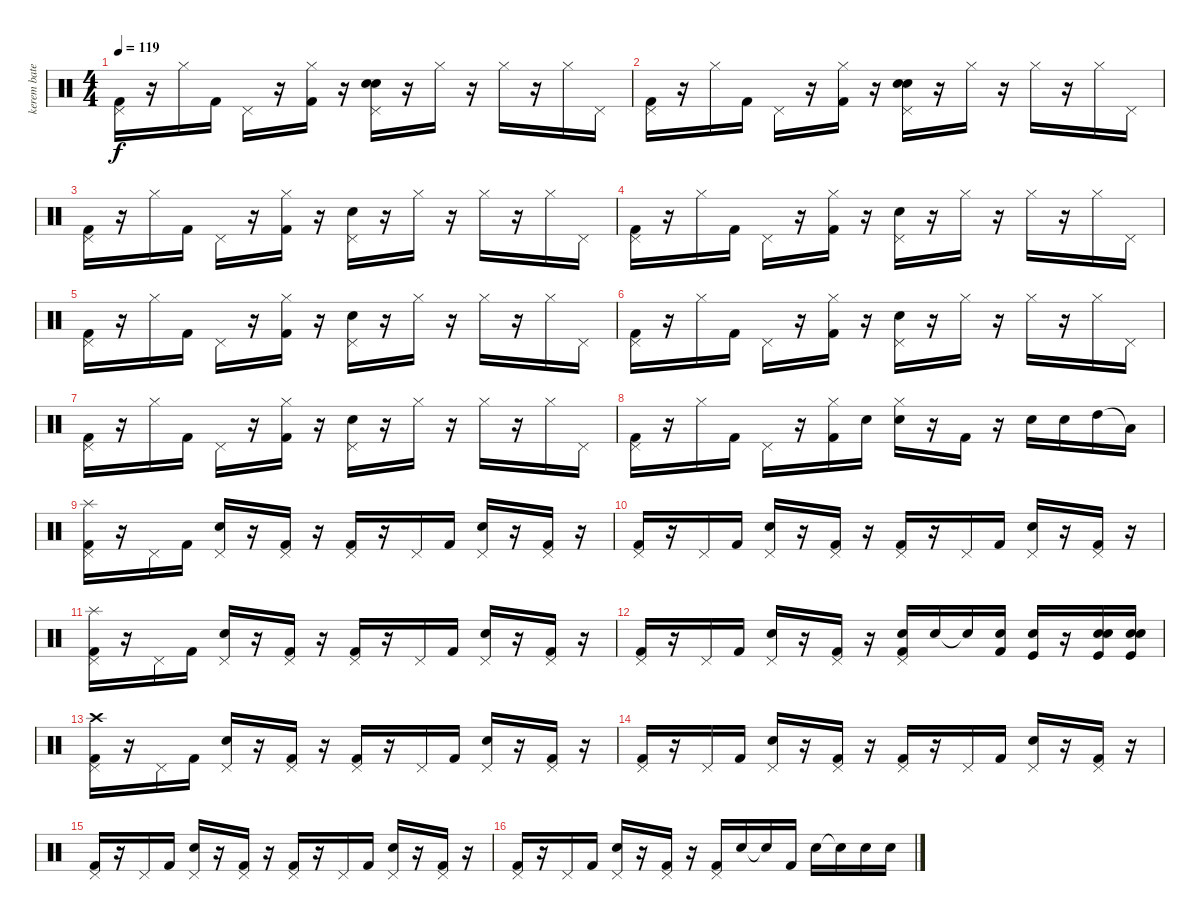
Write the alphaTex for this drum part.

\track ("kerem bateri" "kerem bate") {instrument percussion}
\staff {score}
\articulation defaults
\ts (4 4)
\tempo 119
\clef neutral
\ks c
("Pedal Hi-Hat (hit)" "Kick (hit) 2").16{dy f} r.16 "Hi-Hat (closed)".16 "Kick (hit) 2".16 "Pedal Hi-Hat (hit)".16 r.16 ("Hi-Hat (closed)" "Kick (hit) 2").16 r.16 ("Pedal Hi-Hat (hit)" "Electric Snare (hit)" "Snare (hit) 2").16 r.16 "Hi-Hat (closed)".16 r.16 "Hi-Hat (closed)".16 r.16 "Hi-Hat (closed)".16 "Pedal Hi-Hat (hit)".16 |
("Pedal Hi-Hat (hit)" "Kick (hit) 2").16 r.16 "Hi-Hat (closed)".16 "Kick (hit) 2".16 "Pedal Hi-Hat (hit)".16 r.16 ("Hi-Hat (closed)" "Kick (hit) 2").16 r.16 ("Pedal Hi-Hat (hit)" "Electric Snare (hit)" "Snare (hit) 2").16 r.16 "Hi-Hat (closed)".16 r.16 "Hi-Hat (closed)".16 r.16 "Hi-Hat (closed)".16 "Pedal Hi-Hat (hit)".16 |
("Pedal Hi-Hat (hit)" "Kick (hit) 2").16 r.16 "Hi-Hat (closed)".16 "Kick (hit) 2".16 "Pedal Hi-Hat (hit)".16 r.16 ("Hi-Hat (closed)" "Kick (hit) 2").16 r.16 ("Pedal Hi-Hat (hit)" "Electric Snare (hit)").16 r.16 "Hi-Hat (closed)".16 r.16 "Hi-Hat (closed)".16 r.16 "Hi-Hat (closed)".16 "Pedal Hi-Hat (hit)".16 |
("Pedal Hi-Hat (hit)" "Kick (hit) 2").16 r.16 "Hi-Hat (closed)".16 "Kick (hit) 2".16 "Pedal Hi-Hat (hit)".16 r.16 ("Hi-Hat (closed)" "Kick (hit) 2").16 r.16 ("Pedal Hi-Hat (hit)" "Electric Snare (hit)").16 r.16 "Hi-Hat (closed)".16 r.16 "Hi-Hat (closed)".16 r.16 "Hi-Hat (closed)".16 "Pedal Hi-Hat (hit)".16 |
("Pedal Hi-Hat (hit)" "Kick (hit) 2").16 r.16 "Hi-Hat (closed)".16 "Kick (hit) 2".16 "Pedal Hi-Hat (hit)".16 r.16 ("Hi-Hat (closed)" "Kick (hit) 2").16 r.16 ("Pedal Hi-Hat (hit)" "Electric Snare (hit)").16 r.16 "Hi-Hat (closed)".16 r.16 "Hi-Hat (closed)".16 r.16 "Hi-Hat (closed)".16 "Pedal Hi-Hat (hit)".16 |
("Pedal Hi-Hat (hit)" "Kick (hit) 2").16 r.16 "Hi-Hat (closed)".16 "Kick (hit) 2".16 "Pedal Hi-Hat (hit)".16 r.16 ("Hi-Hat (closed)" "Kick (hit) 2").16 r.16 ("Pedal Hi-Hat (hit)" "Electric Snare (hit)").16 r.16 "Hi-Hat (closed)".16 r.16 "Hi-Hat (closed)".16 r.16 "Hi-Hat (closed)".16 "Pedal Hi-Hat (hit)".16 |
("Pedal Hi-Hat (hit)" "Kick (hit) 2").16 r.16 "Hi-Hat (closed)".16 "Kick (hit) 2".16 "Pedal Hi-Hat (hit)".16 r.16 ("Hi-Hat (closed)" "Kick (hit) 2").16 r.16 ("Pedal Hi-Hat (hit)" "Electric Snare (hit)").16 r.16 "Hi-Hat (closed)".16 r.16 "Hi-Hat (closed)".16 r.16 "Hi-Hat (closed)".16 "Pedal Hi-Hat (hit)".16 |
("Pedal Hi-Hat (hit)" "Kick (hit) 2").16 r.16 "Hi-Hat (closed)".16 "Kick (hit) 2".16 "Pedal Hi-Hat (hit)".16 r.16 ("Hi-Hat (closed)" "Kick (hit) 2").16 "Electric Snare (hit)".16 ("Hi-Hat (closed)" "Electric Snare (hit)").16 r.16 "Kick (hit) 2".16 r.16 "Electric Snare (hit)".16 "Electric Snare (hit)".16 "High Tom (hit)".16 "Low Tom (hit)"{t}.16 |
("Splash (hit)" "Kick (hit) 2" "Pedal Hi-Hat (hit)").16 r.16 "Pedal Hi-Hat (hit)".16 "Kick (hit) 2".16 ("Electric Snare (hit)" "Pedal Hi-Hat (hit)").16 r.16 ("Kick (hit) 2" "Pedal Hi-Hat (hit)").16 r.16 ("Kick (hit) 2" "Pedal Hi-Hat (hit)").16 r.16 "Pedal Hi-Hat (hit)".16 "Kick (hit) 2".16 ("Electric Snare (hit)" "Pedal Hi-Hat (hit)").16 r.16 ("Kick (hit) 2" "Pedal Hi-Hat (hit)").16 r.16 |
("Kick (hit) 2" "Pedal Hi-Hat (hit)").16 r.16 "Pedal Hi-Hat (hit)".16 "Kick (hit) 2".16 ("Electric Snare (hit)" "Pedal Hi-Hat (hit)").16 r.16 ("Kick (hit) 2" "Pedal Hi-Hat (hit)").16 r.16 ("Kick (hit) 2" "Pedal Hi-Hat (hit)").16 r.16 "Pedal Hi-Hat (hit)".16 "Kick (hit) 2".16 ("Electric Snare (hit)" "Pedal Hi-Hat (hit)").16 r.16 ("Kick (hit) 2" "Pedal Hi-Hat (hit)").16 r.16 |
("Splash (hit)" "Kick (hit) 2" "Pedal Hi-Hat (hit)").16 r.16 "Pedal Hi-Hat (hit)".16 "Kick (hit) 2".16 ("Electric Snare (hit)" "Pedal Hi-Hat (hit)").16 r.16 ("Kick (hit) 2" "Pedal Hi-Hat (hit)").16 r.16 ("Kick (hit) 2" "Pedal Hi-Hat (hit)").16 r.16 "Pedal Hi-Hat (hit)".16 "Kick (hit) 2".16 ("Electric Snare (hit)" "Pedal Hi-Hat (hit)").16 r.16 ("Kick (hit) 2" "Pedal Hi-Hat (hit)").16 r.16 |
("Kick (hit) 2" "Pedal Hi-Hat (hit)").16 r.16 "Pedal Hi-Hat (hit)".16 "Kick (hit) 2".16 ("Electric Snare (hit)" "Pedal Hi-Hat (hit)").16 r.16 ("Kick (hit) 2" "Pedal Hi-Hat (hit)").16 r.16 ("Snare (hit) 2" "Kick (hit) 2" "Pedal Hi-Hat (hit)").16 "Electric Snare (hit)".16 "Snare (hit)"{t}.16 ("Snare (hit) 2" "Kick (hit) 2").16 ("Electric Snare (hit)" "Kick (hit)").16 r.16 ("Snare (hit) 2" "Electric Snare (hit)" "Kick (hit)").16 ("Snare (hit) 2" "Electric Snare (hit)" "Kick (hit)").16 |
("Crash high (hit)" "Kick (hit) 2" "Pedal Hi-Hat (hit)").16 r.16 "Pedal Hi-Hat (hit)".16 "Kick (hit) 2".16 ("Electric Snare (hit)" "Pedal Hi-Hat (hit)").16 r.16 ("Kick (hit) 2" "Pedal Hi-Hat (hit)").16 r.16 ("Kick (hit) 2" "Pedal Hi-Hat (hit)").16 r.16 "Pedal Hi-Hat (hit)".16 "Kick (hit) 2".16 ("Electric Snare (hit)" "Pedal Hi-Hat (hit)").16 r.16 ("Kick (hit) 2" "Pedal Hi-Hat (hit)").16 r.16 |
("Kick (hit) 2" "Pedal Hi-Hat (hit)").16 r.16 "Pedal Hi-Hat (hit)".16 "Kick (hit) 2".16 ("Electric Snare (hit)" "Pedal Hi-Hat (hit)").16 r.16 ("Kick (hit) 2" "Pedal Hi-Hat (hit)").16 r.16 ("Kick (hit) 2" "Pedal Hi-Hat (hit)").16 r.16 "Pedal Hi-Hat (hit)".16 "Kick (hit) 2".16 ("Electric Snare (hit)" "Pedal Hi-Hat (hit)").16 r.16 ("Kick (hit) 2" "Pedal Hi-Hat (hit)").16 r.16 |
("Kick (hit) 2" "Pedal Hi-Hat (hit)").16 r.16 "Pedal Hi-Hat (hit)".16 "Kick (hit) 2".16 ("Electric Snare (hit)" "Pedal Hi-Hat (hit)").16 r.16 ("Kick (hit) 2" "Pedal Hi-Hat (hit)").16 r.16 ("Kick (hit) 2" "Pedal Hi-Hat (hit)").16 r.16 "Pedal Hi-Hat (hit)".16 "Kick (hit) 2".16 ("Electric Snare (hit)" "Pedal Hi-Hat (hit)").16 r.16 ("Kick (hit) 2" "Pedal Hi-Hat (hit)").16 r.16 |
("Kick (hit) 2" "Pedal Hi-Hat (hit)").16 r.16 "Pedal Hi-Hat (hit)".16 "Kick (hit) 2".16 ("Electric Snare (hit)" "Pedal Hi-Hat (hit)").16 r.16 ("Kick (hit) 2" "Pedal Hi-Hat (hit)").16 r.16 ("Kick (hit) 2" "Pedal Hi-Hat (hit)").16 "Electric Snare (hit)".16 "Snare (hit)"{t}.16 "Kick (hit) 2".16 "Electric Snare (hit)".16 "Electric Snare (hit)"{t}.16 "Electric Snare (hit)".16 "Electric Snare (hit)".16
